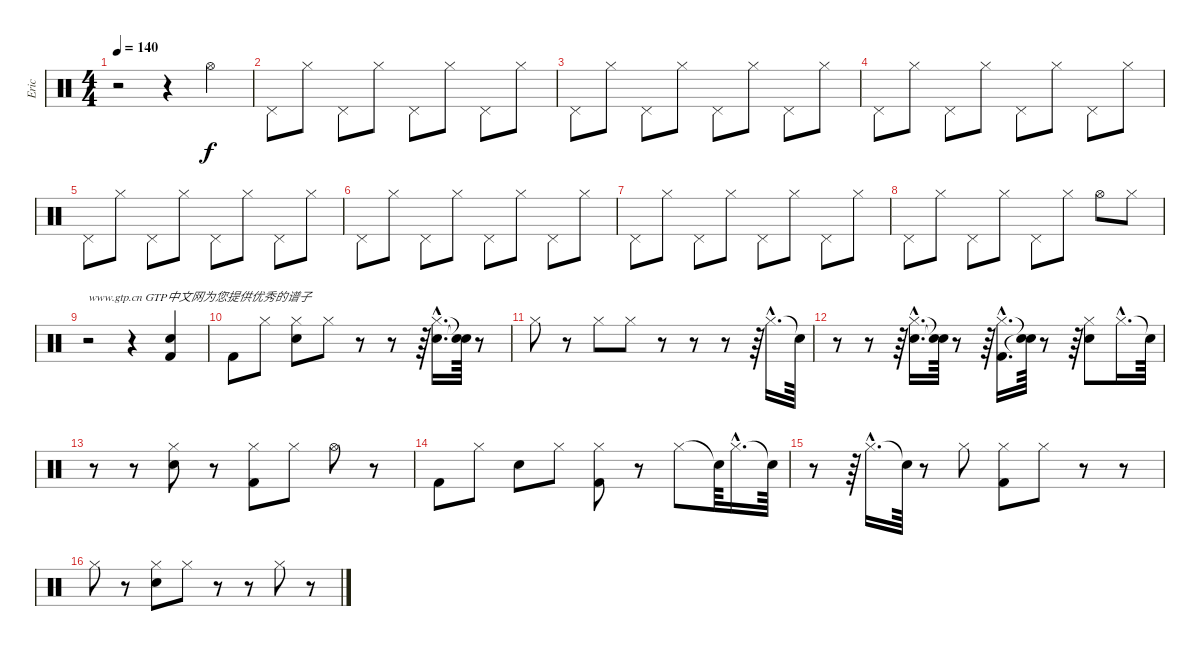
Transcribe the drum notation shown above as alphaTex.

\track ("Eric" "Eric") {instrument percussion}
\staff {score}
\articulation defaults
\ts (4 4)
\tempo 140
\clef neutral
\ks c
r.2{dy f} r.4 "Hi-Hat (open)".4 |
"Pedal Hi-Hat (hit)".8 "Hi-Hat (closed)".8 "Pedal Hi-Hat (hit)".8 "Hi-Hat (closed)".8 "Pedal Hi-Hat (hit)".8 "Hi-Hat (closed)".8 "Pedal Hi-Hat (hit)".8 "Hi-Hat (closed)".8 |
"Pedal Hi-Hat (hit)".8 "Hi-Hat (closed)".8 "Pedal Hi-Hat (hit)".8 "Hi-Hat (closed)".8 "Pedal Hi-Hat (hit)".8 "Hi-Hat (closed)".8 "Pedal Hi-Hat (hit)".8 "Hi-Hat (closed)".8 |
"Pedal Hi-Hat (hit)".8 "Hi-Hat (closed)".8 "Pedal Hi-Hat (hit)".8 "Hi-Hat (closed)".8 "Pedal Hi-Hat (hit)".8 "Hi-Hat (closed)".8 "Pedal Hi-Hat (hit)".8 "Hi-Hat (closed)".8 |
"Pedal Hi-Hat (hit)".8 "Hi-Hat (closed)".8 "Pedal Hi-Hat (hit)".8 "Hi-Hat (closed)".8 "Pedal Hi-Hat (hit)".8 "Hi-Hat (closed)".8 "Pedal Hi-Hat (hit)".8 "Hi-Hat (closed)".8 |
"Pedal Hi-Hat (hit)".8 "Hi-Hat (closed)".8 "Pedal Hi-Hat (hit)".8 "Hi-Hat (closed)".8 "Pedal Hi-Hat (hit)".8 "Hi-Hat (closed)".8 "Pedal Hi-Hat (hit)".8 "Hi-Hat (closed)".8 |
"Pedal Hi-Hat (hit)".8 "Hi-Hat (closed)".8 "Pedal Hi-Hat (hit)".8 "Hi-Hat (closed)".8 "Pedal Hi-Hat (hit)".8 "Hi-Hat (closed)".8 "Pedal Hi-Hat (hit)".8 "Hi-Hat (closed)".8 |
"Pedal Hi-Hat (hit)".8 "Hi-Hat (closed)".8 "Pedal Hi-Hat (hit)".8 "Hi-Hat (closed)".8 "Pedal Hi-Hat (hit)".8 "Hi-Hat (closed)".8 "Hi-Hat (open)".8 "Hi-Hat (closed)".8 |
r.2{txt "www.gtp.cn GTP中文网为您提供优秀的谱子"} r.4 ("Kick (hit) 2" "Electric Snare (hit)").4 |
"Kick (hit) 2".8 "Hi-Hat (closed)".8 ("Hi-Hat (closed)" "Electric Snare (hit)").8 "Hi-Hat (closed)".8 r.8 r.8 r.64 ("Electric Snare (hit)"{hac} "Hi-Hat (closed)"{hac}).16{d} ("Snare (hit)"{t} "Snare (hit)"{t}).64 r.8 |
"Hi-Hat (closed)".8 r.8 "Hi-Hat (closed)".8 "Hi-Hat (closed)".8 r.8 r.8 r.8 r.64 "Hi-Hat (closed)"{hac}.16{d} "Snare (hit)"{t}.64 |
r.8 r.8 r.64 ("Electric Snare (hit)"{hac} "Hi-Hat (closed)"{hac}).16{d} ("Snare (hit)"{t} "Snare (hit)"{t}).64 r.8 r.64 ("Hi-Hat (closed)"{hac} "Kick (hit) 2"{hac}).16{d} ("Snare (hit)"{t} "Snare (hit)"{t}).64 r.8 r.64 ("Electric Snare (hit)" "Hi-Hat (closed)").8 "Hi-Hat (closed)"{hac}.16{d} "Snare (hit)"{t}.64 |
r.8 r.8 ("Electric Snare (hit)" "Hi-Hat (closed)").8 r.8 ("Hi-Hat (closed)" "Kick (hit) 2").8 "Hi-Hat (closed)".8 "Hi-Hat (open)".8 r.8 |
"Kick (hit) 2".8 "Hi-Hat (closed)".8 "Electric Snare (hit)".8 "Hi-Hat (closed)".8 ("Kick (hit) 2" "Hi-Hat (closed)").8 r.8 "Hi-Hat (closed)".8 "Snare (hit)"{t}.64 "Hi-Hat (closed)"{hac}.16{d} "Snare (hit)"{t}.64 |
r.8 r.64 "Hi-Hat (closed)"{hac}.16{d} "Snare (hit)"{t}.64 r.8 "Hi-Hat (closed)".8 ("Hi-Hat (closed)" "Kick (hit) 2").8 "Hi-Hat (closed)".8 r.8 r.8 |
"Hi-Hat (closed)".8 r.8 ("Electric Snare (hit)" "Hi-Hat (closed)").8 "Hi-Hat (closed)".8 r.8 r.8 "Hi-Hat (closed)".8 r.8
